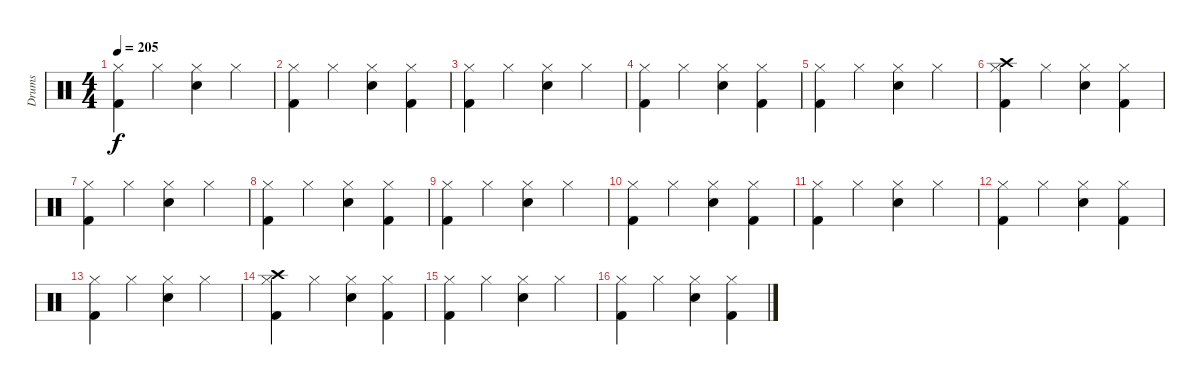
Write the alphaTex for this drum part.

\track ("Drums" "Drums") {instrument percussion}
\staff {score}
\articulation defaults
\ts (4 4)
\tempo 205
\clef neutral
\ks c
("Kick (hit) 2" "Hi-Hat (closed)").4{dy f} "Hi-Hat (closed)".4 ("Snare (hit) 2" "Hi-Hat (closed)").4 "Hi-Hat (closed)".4 |
("Kick (hit) 2" "Hi-Hat (closed)").4 "Hi-Hat (closed)".4 ("Snare (hit) 2" "Hi-Hat (closed)").4 ("Kick (hit) 2" "Hi-Hat (closed)").4 |
("Kick (hit) 2" "Hi-Hat (closed)").4 "Hi-Hat (closed)".4 ("Snare (hit) 2" "Hi-Hat (closed)").4 "Hi-Hat (closed)".4 |
("Kick (hit) 2" "Hi-Hat (closed)").4 "Hi-Hat (closed)".4 ("Snare (hit) 2" "Hi-Hat (closed)").4 ("Kick (hit) 2" "Hi-Hat (closed)").4 |
("Kick (hit) 2" "Hi-Hat (closed)").4 "Hi-Hat (closed)".4 ("Snare (hit) 2" "Hi-Hat (closed)").4 "Hi-Hat (closed)".4 |
("Crash high (hit)" "Kick (hit) 2" "Hi-Hat (closed)").4 "Hi-Hat (closed)".4 ("Snare (hit) 2" "Hi-Hat (closed)").4 ("Kick (hit) 2" "Hi-Hat (closed)").4 |
("Kick (hit) 2" "Hi-Hat (closed)").4 "Hi-Hat (closed)".4 ("Snare (hit) 2" "Hi-Hat (closed)").4 "Hi-Hat (closed)".4 |
("Kick (hit) 2" "Hi-Hat (closed)").4 "Hi-Hat (closed)".4 ("Snare (hit) 2" "Hi-Hat (closed)").4 ("Kick (hit) 2" "Hi-Hat (closed)").4 |
("Kick (hit) 2" "Hi-Hat (closed)").4 "Hi-Hat (closed)".4 ("Snare (hit) 2" "Hi-Hat (closed)").4 "Hi-Hat (closed)".4 |
("Kick (hit) 2" "Hi-Hat (closed)").4 "Hi-Hat (closed)".4 ("Snare (hit) 2" "Hi-Hat (closed)").4 ("Kick (hit) 2" "Hi-Hat (closed)").4 |
("Kick (hit) 2" "Hi-Hat (closed)").4 "Hi-Hat (closed)".4 ("Snare (hit) 2" "Hi-Hat (closed)").4 "Hi-Hat (closed)".4 |
("Kick (hit) 2" "Hi-Hat (closed)").4 "Hi-Hat (closed)".4 ("Snare (hit) 2" "Hi-Hat (closed)").4 ("Kick (hit) 2" "Hi-Hat (closed)").4 |
("Kick (hit) 2" "Hi-Hat (closed)").4 "Hi-Hat (closed)".4 ("Snare (hit) 2" "Hi-Hat (closed)").4 "Hi-Hat (closed)".4 |
("Crash high (hit)" "Kick (hit) 2" "Hi-Hat (closed)").4 "Hi-Hat (closed)".4 ("Snare (hit) 2" "Hi-Hat (closed)").4 ("Kick (hit) 2" "Hi-Hat (closed)").4 |
("Kick (hit) 2" "Hi-Hat (closed)").4 "Hi-Hat (closed)".4 ("Snare (hit) 2" "Hi-Hat (closed)").4 "Hi-Hat (closed)".4 |
("Kick (hit) 2" "Hi-Hat (closed)").4 "Hi-Hat (closed)".4 ("Snare (hit) 2" "Hi-Hat (closed)").4 ("Kick (hit) 2" "Hi-Hat (closed)").4
